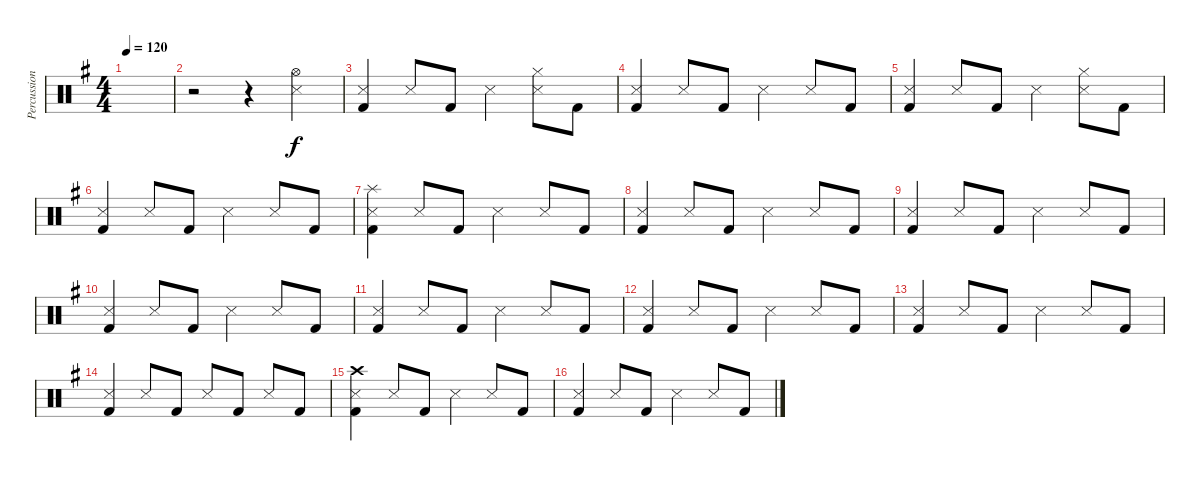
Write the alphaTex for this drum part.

\track ("Percussion" "Percussion") {instrument percussion}
\staff {score}
\articulation defaults
\ts (4 4)
\tempo 120
\clef neutral
\ks g
|
r.2 r.4 ("Hi-Hat (open)" "Snare (side stick) 3").4 |
("Snare (side stick) 3" "Kick (hit) 2").4 "Snare (side stick) 3".8 "Kick (hit) 2".8 "Snare (side stick) 3".4 ("Hi-Hat (closed)" "Snare (side stick) 3").8 "Kick (hit) 2".8 |
("Snare (side stick) 3" "Kick (hit) 2").4 "Snare (side stick) 3".8 "Kick (hit) 2".8 "Snare (side stick) 3".4 "Snare (side stick) 3".8 "Kick (hit) 2".8 |
("Snare (side stick) 3" "Kick (hit) 2").4 "Snare (side stick) 3".8 "Kick (hit) 2".8 "Snare (side stick) 3".4 ("Hi-Hat (closed)" "Snare (side stick) 3").8 "Kick (hit) 2".8 |
("Snare (side stick) 3" "Kick (hit) 2").4 "Snare (side stick) 3".8 "Kick (hit) 2".8 "Snare (side stick) 3".4 "Snare (side stick) 3".8 "Kick (hit) 2".8 |
("Splash (hit)" "Snare (side stick) 3" "Kick (hit) 2").4 "Snare (side stick) 3".8 "Kick (hit) 2".8 "Snare (side stick) 3".4 "Snare (side stick) 3".8 "Kick (hit) 2".8 |
("Snare (side stick) 3" "Kick (hit) 2").4 "Snare (side stick) 3".8 "Kick (hit) 2".8 "Snare (side stick) 3".4 "Snare (side stick) 3".8 "Kick (hit) 2".8 |
("Snare (side stick) 3" "Kick (hit) 2").4 "Snare (side stick) 3".8 "Kick (hit) 2".8 "Snare (side stick) 3".4 "Snare (side stick) 3".8 "Kick (hit) 2".8 |
("Snare (side stick) 3" "Kick (hit) 2").4 "Snare (side stick) 3".8 "Kick (hit) 2".8 "Snare (side stick) 3".4 "Snare (side stick) 3".8 "Kick (hit) 2".8 |
("Snare (side stick) 3" "Kick (hit) 2").4 "Snare (side stick) 3".8 "Kick (hit) 2".8 "Snare (side stick) 3".4 "Snare (side stick) 3".8 "Kick (hit) 2".8 |
("Snare (side stick) 3" "Kick (hit) 2").4 "Snare (side stick) 3".8 "Kick (hit) 2".8 "Snare (side stick) 3".4 "Snare (side stick) 3".8 "Kick (hit) 2".8 |
("Snare (side stick) 3" "Kick (hit) 2").4 "Snare (side stick) 3".8 "Kick (hit) 2".8 "Snare (side stick) 3".4 "Snare (side stick) 3".8 "Kick (hit) 2".8 |
("Snare (side stick) 3" "Kick (hit) 2").4 "Snare (side stick) 3".8 "Kick (hit) 2".8 "Snare (side stick) 3".8 "Kick (hit) 2".8 "Snare (side stick) 3".8 "Kick (hit) 2".8 |
("Crash high (hit)" "Snare (side stick) 3" "Kick (hit) 2").4 "Snare (side stick) 3".8 "Kick (hit) 2".8 "Snare (side stick) 3".4 "Snare (side stick) 3".8 "Kick (hit) 2".8 |
("Snare (side stick) 3" "Kick (hit) 2").4 "Snare (side stick) 3".8 "Kick (hit) 2".8 "Snare (side stick) 3".4 "Snare (side stick) 3".8 "Kick (hit) 2".8
